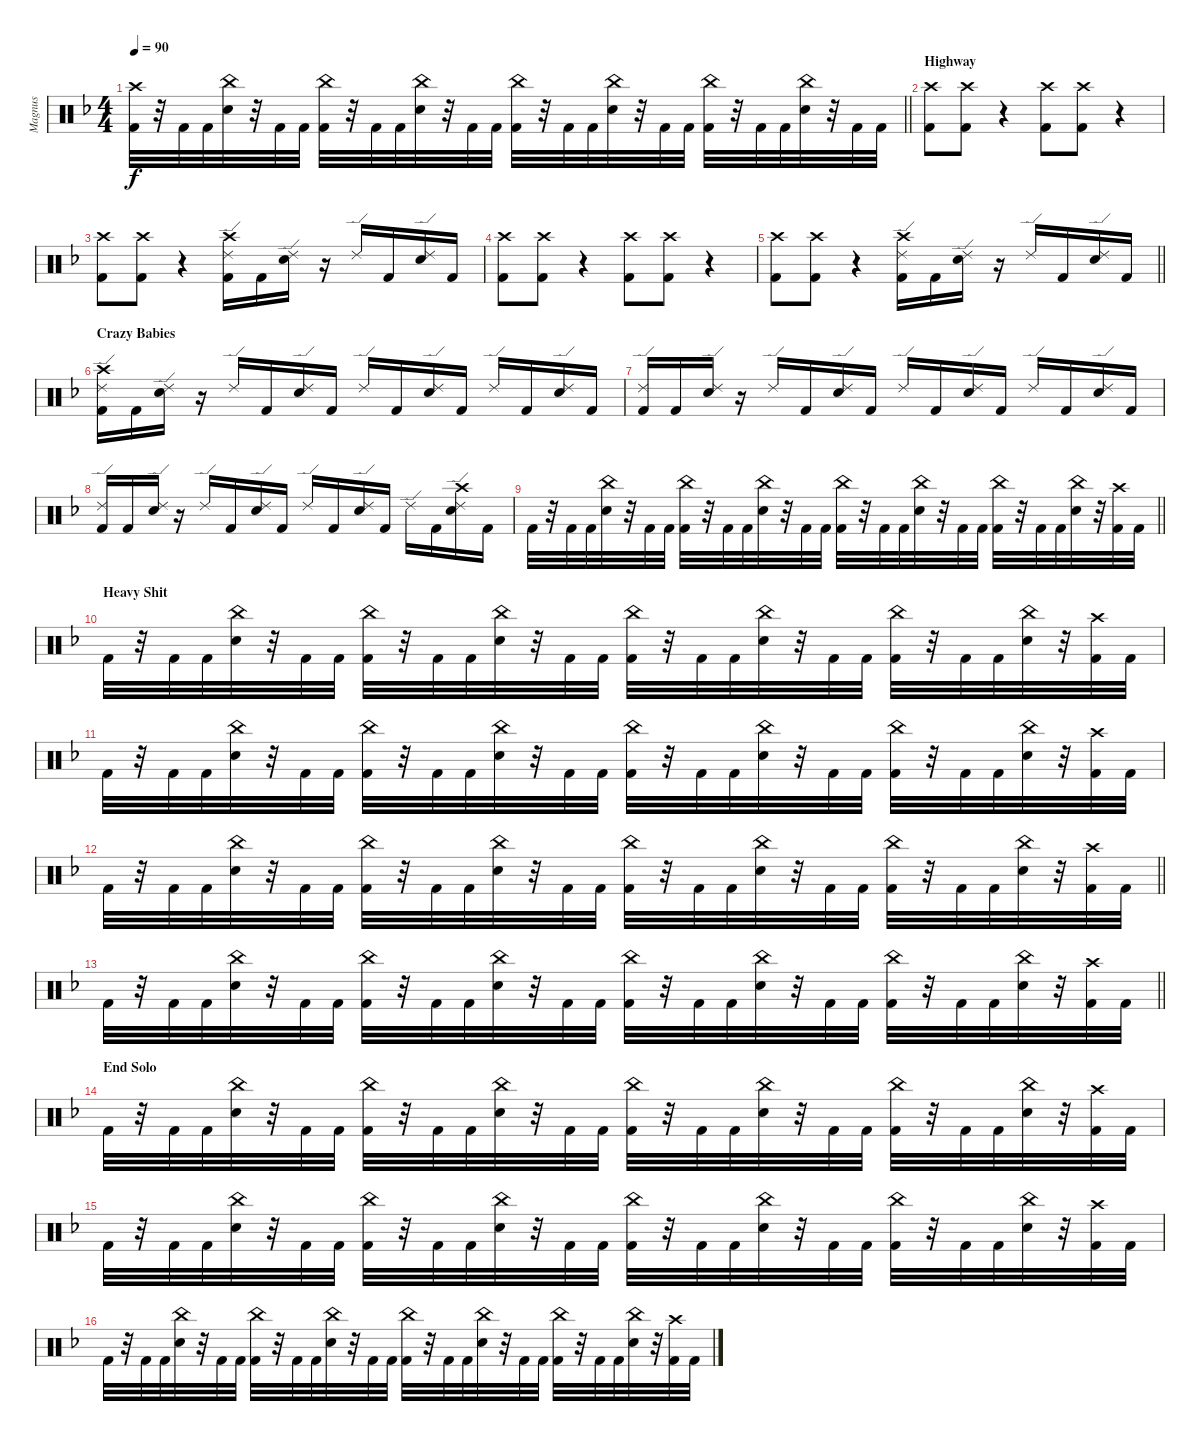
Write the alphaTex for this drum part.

\track ("Magnus" "Magnus") {instrument percussion}
\staff {score}
\articulation defaults
\ts (4 4)
\tempo 90
\clef neutral
\barLineRight lightlight
\ks dminor
("Crash high (hit)" "Kick (hit) 2").32{dy f} r.32 "Kick (hit) 2".32 "Kick (hit) 2".32 ("China (hit)" "Snare (hit) 2").32 r.32 "Kick (hit) 2".32 "Kick (hit) 2".32 ("China (hit)" "Kick (hit) 2").32 r.32 "Kick (hit) 2".32 "Kick (hit) 2".32 ("China (hit)" "Snare (hit) 2").32 r.32 "Kick (hit) 2".32 "Kick (hit) 2".32 ("China (hit)" "Kick (hit) 2").32 r.32 "Kick (hit) 2".32 "Kick (hit) 2".32 ("China (hit)" "Snare (hit) 2").32 r.32 "Kick (hit) 2".32 "Kick (hit) 2".32 ("China (hit)" "Kick (hit) 2").32 r.32 "Kick (hit) 2".32 "Kick (hit) 2".32 ("China (hit)" "Snare (hit) 2").32 r.32 "Kick (hit) 2".32 "Kick (hit) 2".32 |
\section ("" "Highway")
("Crash high (hit)" "Kick (hit) 2").8 ("Crash high (hit)" "Kick (hit) 2").8 r.4 ("Crash high (hit)" "Kick (hit) 2").8 ("Crash high (hit)" "Kick (hit) 2").8 r.4 |
("Crash high (hit)" "Kick (hit) 2").8 ("Crash high (hit)" "Kick (hit) 2").8 r.4 ("Crash high (hit)" "Ride (edge) 2" "Kick (hit) 2").16 "Kick (hit) 2".16 ("Ride (edge) 2" "Snare (hit) 2").16 r.16 "Ride (edge) 2".16 "Kick (hit) 2".16 ("Ride (edge) 2" "Snare (hit) 2").16 "Kick (hit) 2".16 |
("Crash high (hit)" "Kick (hit) 2").8 ("Crash high (hit)" "Kick (hit) 2").8 r.4 ("Crash high (hit)" "Kick (hit) 2").8 ("Crash high (hit)" "Kick (hit) 2").8 r.4 |
\barLineRight lightlight
("Crash high (hit)" "Kick (hit) 2").8 ("Crash high (hit)" "Kick (hit) 2").8 r.4 ("Crash high (hit)" "Ride (edge) 2" "Kick (hit) 2").16 "Kick (hit) 2".16 ("Ride (edge) 2" "Snare (hit) 2").16 r.16 "Ride (edge) 2".16 "Kick (hit) 2".16 ("Ride (edge) 2" "Snare (hit) 2").16 "Kick (hit) 2".16 |
\section ("" "Crazy Babies")
("Crash high (hit)" "Ride (edge) 2" "Kick (hit) 2").16 "Kick (hit) 2".16 ("Ride (edge) 2" "Snare (hit) 2").16 r.16 "Ride (edge) 2".16 "Kick (hit) 2".16 ("Ride (edge) 2" "Snare (hit) 2").16 "Kick (hit) 2".16 "Ride (edge) 2".16 "Kick (hit) 2".16 ("Ride (edge) 2" "Snare (hit) 2").16 "Kick (hit) 2".16 "Ride (edge) 2".16 "Kick (hit) 2".16 ("Ride (edge) 2" "Snare (hit) 2").16 "Kick (hit) 2".16 |
("Ride (edge) 2" "Kick (hit) 2").16 "Kick (hit) 2".16 ("Ride (edge) 2" "Snare (hit) 2").16 r.16 "Ride (edge) 2".16 "Kick (hit) 2".16 ("Ride (edge) 2" "Snare (hit) 2").16 "Kick (hit) 2".16 "Ride (edge) 2".16 "Kick (hit) 2".16 ("Ride (edge) 2" "Snare (hit) 2").16 "Kick (hit) 2".16 "Ride (edge) 2".16 "Kick (hit) 2".16 ("Ride (edge) 2" "Snare (hit) 2").16 "Kick (hit) 2".16 |
("Ride (edge) 2" "Kick (hit) 2").16 "Kick (hit) 2".16 ("Ride (edge) 2" "Snare (hit) 2").16 r.16 "Ride (edge) 2".16 "Kick (hit) 2".16 ("Ride (edge) 2" "Snare (hit) 2").16 "Kick (hit) 2".16 "Ride (edge) 2".16 "Kick (hit) 2".16 ("Ride (edge) 2" "Snare (hit) 2").16 "Kick (hit) 2".16 "Ride (edge) 2".16 "Kick (hit) 2".16 ("Ride (edge) 2" "Crash high (hit)" "Snare (hit) 2").16 "Kick (hit) 2".16 |
\barLineRight lightlight "Kick (hit) 2".32
r.32 "Kick (hit) 2".32 "Kick (hit) 2".32 ("China (hit)" "Snare (hit) 2").32 r.32 "Kick (hit) 2".32 "Kick (hit) 2".32 ("China (hit)" "Kick (hit) 2").32 r.32 "Kick (hit) 2".32 "Kick (hit) 2".32 ("China (hit)" "Snare (hit) 2").32 r.32 "Kick (hit) 2".32 "Kick (hit) 2".32 ("China (hit)" "Kick (hit) 2").32 r.32 "Kick (hit) 2".32 "Kick (hit) 2".32 ("China (hit)" "Snare (hit) 2").32 r.32 "Kick (hit) 2".32 "Kick (hit) 2".32 ("China (hit)" "Kick (hit) 2").32 r.32 "Kick (hit) 2".32 "Kick (hit) 2".32 ("China (hit)" "Snare (hit) 2").32 r.32 ("Crash high (hit)" "Kick (hit) 2").32 "Kick (hit) 2".32 |
\section ("" "Heavy Shit")
"Kick (hit) 2".32 r.32 "Kick (hit) 2".32 "Kick (hit) 2".32 ("China (hit)" "Snare (hit) 2").32 r.32 "Kick (hit) 2".32 "Kick (hit) 2".32 ("China (hit)" "Kick (hit) 2").32 r.32 "Kick (hit) 2".32 "Kick (hit) 2".32 ("China (hit)" "Snare (hit) 2").32 r.32 "Kick (hit) 2".32 "Kick (hit) 2".32 ("China (hit)" "Kick (hit) 2").32 r.32 "Kick (hit) 2".32 "Kick (hit) 2".32 ("China (hit)" "Snare (hit) 2").32 r.32 "Kick (hit) 2".32 "Kick (hit) 2".32 ("China (hit)" "Kick (hit) 2").32 r.32 "Kick (hit) 2".32 "Kick (hit) 2".32 ("China (hit)" "Snare (hit) 2").32 r.32 ("Crash high (hit)" "Kick (hit) 2").32 "Kick (hit) 2".32 |
"Kick (hit) 2".32 r.32 "Kick (hit) 2".32 "Kick (hit) 2".32 ("China (hit)" "Snare (hit) 2").32 r.32 "Kick (hit) 2".32 "Kick (hit) 2".32 ("China (hit)" "Kick (hit) 2").32 r.32 "Kick (hit) 2".32 "Kick (hit) 2".32 ("China (hit)" "Snare (hit) 2").32 r.32 "Kick (hit) 2".32 "Kick (hit) 2".32 ("China (hit)" "Kick (hit) 2").32 r.32 "Kick (hit) 2".32 "Kick (hit) 2".32 ("China (hit)" "Snare (hit) 2").32 r.32 "Kick (hit) 2".32 "Kick (hit) 2".32 ("China (hit)" "Kick (hit) 2").32 r.32 "Kick (hit) 2".32 "Kick (hit) 2".32 ("China (hit)" "Snare (hit) 2").32 r.32 ("Crash high (hit)" "Kick (hit) 2").32 "Kick (hit) 2".32 |
\barLineRight lightlight "Kick (hit) 2".32
r.32 "Kick (hit) 2".32 "Kick (hit) 2".32 ("China (hit)" "Snare (hit) 2").32 r.32 "Kick (hit) 2".32 "Kick (hit) 2".32 ("China (hit)" "Kick (hit) 2").32 r.32 "Kick (hit) 2".32 "Kick (hit) 2".32 ("China (hit)" "Snare (hit) 2").32 r.32 "Kick (hit) 2".32 "Kick (hit) 2".32 ("China (hit)" "Kick (hit) 2").32 r.32 "Kick (hit) 2".32 "Kick (hit) 2".32 ("China (hit)" "Snare (hit) 2").32 r.32 "Kick (hit) 2".32 "Kick (hit) 2".32 ("China (hit)" "Kick (hit) 2").32 r.32 "Kick (hit) 2".32 "Kick (hit) 2".32 ("China (hit)" "Snare (hit) 2").32 r.32 ("Crash high (hit)" "Kick (hit) 2").32 "Kick (hit) 2".32 |
\barLineRight lightlight "Kick (hit) 2".32
r.32 "Kick (hit) 2".32 "Kick (hit) 2".32 ("China (hit)" "Snare (hit) 2").32 r.32 "Kick (hit) 2".32 "Kick (hit) 2".32 ("China (hit)" "Kick (hit) 2").32 r.32 "Kick (hit) 2".32 "Kick (hit) 2".32 ("China (hit)" "Snare (hit) 2").32 r.32 "Kick (hit) 2".32 "Kick (hit) 2".32 ("China (hit)" "Kick (hit) 2").32 r.32 "Kick (hit) 2".32 "Kick (hit) 2".32 ("China (hit)" "Snare (hit) 2").32 r.32 "Kick (hit) 2".32 "Kick (hit) 2".32 ("China (hit)" "Kick (hit) 2").32 r.32 "Kick (hit) 2".32 "Kick (hit) 2".32 ("China (hit)" "Snare (hit) 2").32 r.32 ("Crash high (hit)" "Kick (hit) 2").32 "Kick (hit) 2".32 |
\section ("" "End Solo")
"Kick (hit) 2".32 r.32 "Kick (hit) 2".32 "Kick (hit) 2".32 ("China (hit)" "Snare (hit) 2").32 r.32 "Kick (hit) 2".32 "Kick (hit) 2".32 ("China (hit)" "Kick (hit) 2").32 r.32 "Kick (hit) 2".32 "Kick (hit) 2".32 ("China (hit)" "Snare (hit) 2").32 r.32 "Kick (hit) 2".32 "Kick (hit) 2".32 ("China (hit)" "Kick (hit) 2").32 r.32 "Kick (hit) 2".32 "Kick (hit) 2".32 ("China (hit)" "Snare (hit) 2").32 r.32 "Kick (hit) 2".32 "Kick (hit) 2".32 ("China (hit)" "Kick (hit) 2").32 r.32 "Kick (hit) 2".32 "Kick (hit) 2".32 ("China (hit)" "Snare (hit) 2").32 r.32 ("Crash high (hit)" "Kick (hit) 2").32 "Kick (hit) 2".32 |
"Kick (hit) 2".32 r.32 "Kick (hit) 2".32 "Kick (hit) 2".32 ("China (hit)" "Snare (hit) 2").32 r.32 "Kick (hit) 2".32 "Kick (hit) 2".32 ("China (hit)" "Kick (hit) 2").32 r.32 "Kick (hit) 2".32 "Kick (hit) 2".32 ("China (hit)" "Snare (hit) 2").32 r.32 "Kick (hit) 2".32 "Kick (hit) 2".32 ("China (hit)" "Kick (hit) 2").32 r.32 "Kick (hit) 2".32 "Kick (hit) 2".32 ("China (hit)" "Snare (hit) 2").32 r.32 "Kick (hit) 2".32 "Kick (hit) 2".32 ("China (hit)" "Kick (hit) 2").32 r.32 "Kick (hit) 2".32 "Kick (hit) 2".32 ("China (hit)" "Snare (hit) 2").32 r.32 ("Crash high (hit)" "Kick (hit) 2").32 "Kick (hit) 2".32 |
"Kick (hit) 2".32 r.32 "Kick (hit) 2".32 "Kick (hit) 2".32 ("China (hit)" "Snare (hit) 2").32 r.32 "Kick (hit) 2".32 "Kick (hit) 2".32 ("China (hit)" "Kick (hit) 2").32 r.32 "Kick (hit) 2".32 "Kick (hit) 2".32 ("China (hit)" "Snare (hit) 2").32 r.32 "Kick (hit) 2".32 "Kick (hit) 2".32 ("China (hit)" "Kick (hit) 2").32 r.32 "Kick (hit) 2".32 "Kick (hit) 2".32 ("China (hit)" "Snare (hit) 2").32 r.32 "Kick (hit) 2".32 "Kick (hit) 2".32 ("China (hit)" "Kick (hit) 2").32 r.32 "Kick (hit) 2".32 "Kick (hit) 2".32 ("China (hit)" "Snare (hit) 2").32 r.32 ("Crash high (hit)" "Kick (hit) 2").32 "Kick (hit) 2".32
